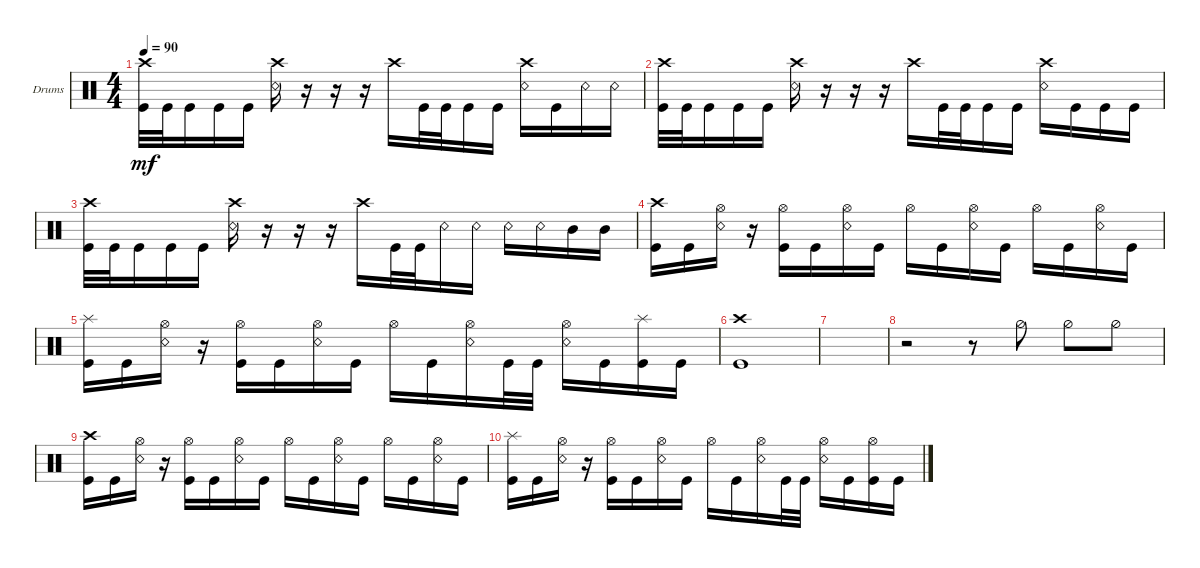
\defaultSystemsLayout 4
\bracketExtendMode groupsimilarinstruments
\firstSystemTrackNameOrientation horizontal
\otherSystemsTrackNameOrientation horizontal
\track ("Drumkit" "Drums") {instrument percussion}
\staff {score}
\articulation defaults
\ts (4 4)
\tempo 90
\clef neutral
\ks c
("Kick (hit)" "Crash high (hit)").32{dy mf} "Kick (hit)".32 "Kick (hit)".16 "Kick (hit)".16 "Kick (hit)".16 ("Snare (rim shot)" "Crash high (hit)").16 r.16 r.16 r.16 "Crash high (hit)".16 "Kick (hit)".32 "Kick (hit)".32 "Kick (hit)".16 "Kick (hit)".16 ("Snare (rim shot)" "Crash high (hit)").16 "Kick (hit)".16 "Snare (rim shot)".16 "Snare (rim shot)".16 |
("Kick (hit)" "Crash high (hit)").32 "Kick (hit)".32 "Kick (hit)".16 "Kick (hit)".16 "Kick (hit)".16 ("Snare (rim shot)" "Crash high (hit)").16 r.16 r.16 r.16 "Crash high (hit)".16 "Kick (hit)".32 "Kick (hit)".32 "Kick (hit)".16 "Kick (hit)".16 ("Snare (rim shot)" "Crash high (hit)").16 "Kick (hit)".16 "Kick (hit)".16 "Kick (hit)".16 |
("Kick (hit)" "Crash high (hit)").32 "Kick (hit)".32 "Kick (hit)".16 "Kick (hit)".16 "Kick (hit)".16 ("Snare (rim shot)" "Crash high (hit)").16 r.16 r.16 r.16 "Crash high (hit)".16 "Kick (hit)".32 "Kick (hit)".32 "Snare (rim shot)".16 "Snare (rim shot)".16 "Snare (rim shot)".16 "Snare (rim shot)".16 "Mid Tom (hit)".16 "Mid Tom (hit)".16 |
("Kick (hit)" "Crash high (hit)").16 "Kick (hit)".16 ("Snare (rim shot)" "Hi-Hat (open)").16 r.16 ("Kick (hit)" "Hi-Hat (open)").16 "Kick (hit)".16 ("Snare (rim shot)" "Hi-Hat (open)").16 "Kick (hit)".16 "Hi-Hat (open)".16 "Kick (hit)".16 ("Snare (rim shot)" "Hi-Hat (open)").16 "Kick (hit)".16 "Hi-Hat (open)".16 "Kick (hit)".16 ("Snare (rim shot)" "Hi-Hat (open)").16 "Kick (hit)".16 |
("Kick (hit)" "Splash (hit)").16 "Kick (hit)".16 ("Snare (rim shot)" "Hi-Hat (open)").16 r.16 ("Kick (hit)" "Hi-Hat (open)").16 "Kick (hit)".16 ("Snare (rim shot)" "Hi-Hat (open)").16 "Kick (hit)".16 "Hi-Hat (open)".16 "Kick (hit)".16 ("Snare (rim shot)" "Hi-Hat (open)").16 "Kick (hit)".32 "Kick (hit)".32 ("Snare (rim shot)" "Hi-Hat (open)").16 "Kick (hit)".16 ("Kick (hit)" "Splash (hit)").16 "Kick (hit)".16 |
("Kick (hit)" "Crash high (hit)").1 |
|
r.2 r.8 "Hi-Hat (half)".8 "Hi-Hat (half)".8 "Hi-Hat (half)".8 |
("Kick (hit)" "Crash high (hit)").16 "Kick (hit)".16 ("Snare (rim shot)" "Hi-Hat (open)").16 r.16 ("Kick (hit)" "Hi-Hat (open)").16 "Kick (hit)".16 ("Snare (rim shot)" "Hi-Hat (open)").16 "Kick (hit)".16 "Hi-Hat (open)".16 "Kick (hit)".16 ("Snare (rim shot)" "Hi-Hat (open)").16 "Kick (hit)".16 "Hi-Hat (open)".16 "Kick (hit)".16 ("Snare (rim shot)" "Hi-Hat (open)").16 "Kick (hit)".16 |
("Kick (hit)" "Splash (hit)").16 "Kick (hit)".16 ("Snare (rim shot)" "Hi-Hat (open)").16 r.16 ("Kick (hit)" "Hi-Hat (open)").16 "Kick (hit)".16 ("Snare (rim shot)" "Hi-Hat (open)").16 "Kick (hit)".16 "Hi-Hat (open)".16 "Kick (hit)".16 ("Snare (rim shot)" "Hi-Hat (open)").16 "Kick (hit)".32 "Kick (hit)".32 ("Snare (rim shot)" "Hi-Hat (open)").16 "Kick (hit)".16 ("Kick (hit)" "Hi-Hat (open)").16 "Kick (hit)".16
